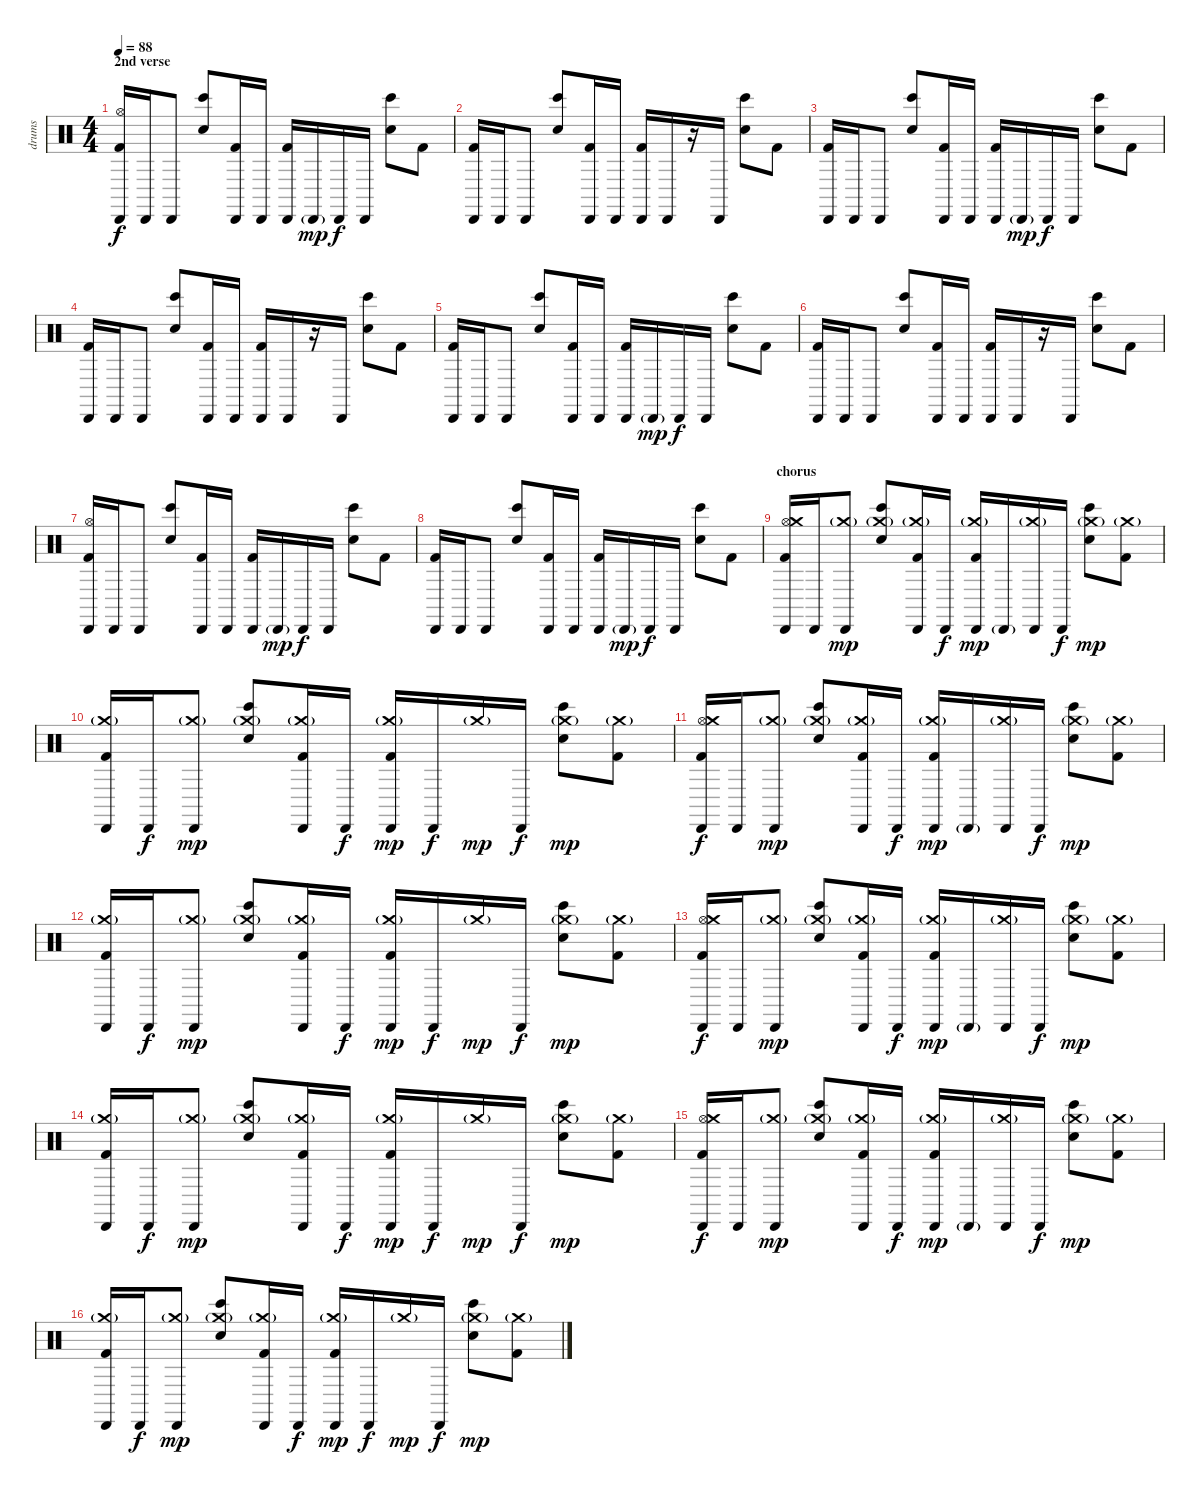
\track ("drums" "drums") {instrument percussion}
\staff {score}
\articulation defaults
\ts (4 4)
\section ("" "2nd verse")
\tempo 88
\clef neutral
\ks c
("Cabasa (hit)" "Kick (hit) 2" "Hi-Hat (open)").16{dy f} "Cabasa (hit)".16 "Cabasa (hit)".8 ("Hand Clap (hit)" "Bongo High (hit)").8 ("Cabasa (hit)" "Kick (hit) 2").16 "Cabasa (hit)".16 ("Cabasa (hit)" "Kick (hit) 2").16 "Cabasa (hit)"{g}.16{dy mp} "Cabasa (hit)".16{dy f} "Cabasa (hit)".16 ("Hand Clap (hit)" "Bongo High (hit)").8 "Kick (hit) 2".8 |
("Cabasa (hit)" "Kick (hit) 2").16 "Cabasa (hit)".16 "Cabasa (hit)".8 ("Bongo High (hit)" "Hand Clap (hit)").8 ("Cabasa (hit)" "Kick (hit) 2").16 "Cabasa (hit)".16 ("Cabasa (hit)" "Kick (hit) 2").16 "Cabasa (hit)".16 r.16 "Cabasa (hit)".16 ("Bongo High (hit)" "Hand Clap (hit)").8 "Kick (hit) 2".8 |
("Cabasa (hit)" "Kick (hit) 2").16 "Cabasa (hit)".16 "Cabasa (hit)".8 ("Hand Clap (hit)" "Bongo High (hit)").8 ("Cabasa (hit)" "Kick (hit) 2").16 "Cabasa (hit)".16 ("Cabasa (hit)" "Kick (hit) 2").16 "Cabasa (hit)"{g}.16{dy mp} "Cabasa (hit)".16{dy f} "Cabasa (hit)".16 ("Hand Clap (hit)" "Bongo High (hit)").8 "Kick (hit) 2".8 |
("Cabasa (hit)" "Kick (hit) 2").16 "Cabasa (hit)".16 "Cabasa (hit)".8 ("Bongo High (hit)" "Hand Clap (hit)").8 ("Cabasa (hit)" "Kick (hit) 2").16 "Cabasa (hit)".16 ("Cabasa (hit)" "Kick (hit) 2").16 "Cabasa (hit)".16 r.16 "Cabasa (hit)".16 ("Bongo High (hit)" "Hand Clap (hit)").8 "Kick (hit) 2".8 |
("Cabasa (hit)" "Kick (hit) 2").16 "Cabasa (hit)".16 "Cabasa (hit)".8 ("Hand Clap (hit)" "Bongo High (hit)").8 ("Cabasa (hit)" "Kick (hit) 2").16 "Cabasa (hit)".16 ("Cabasa (hit)" "Kick (hit) 2").16 "Cabasa (hit)"{g}.16{dy mp} "Cabasa (hit)".16{dy f} "Cabasa (hit)".16 ("Hand Clap (hit)" "Bongo High (hit)").8 "Kick (hit) 2".8 |
("Cabasa (hit)" "Kick (hit) 2").16 "Cabasa (hit)".16 "Cabasa (hit)".8 ("Bongo High (hit)" "Hand Clap (hit)").8 ("Cabasa (hit)" "Kick (hit) 2").16 "Cabasa (hit)".16 ("Cabasa (hit)" "Kick (hit) 2").16 "Cabasa (hit)".16 r.16 "Cabasa (hit)".16 ("Bongo High (hit)" "Hand Clap (hit)").8 "Kick (hit) 2".8 |
("Cabasa (hit)" "Kick (hit) 2" "Hi-Hat (open)").16 "Cabasa (hit)".16 "Cabasa (hit)".8 ("Hand Clap (hit)" "Bongo High (hit)").8 ("Cabasa (hit)" "Kick (hit) 2").16 "Cabasa (hit)".16 ("Cabasa (hit)" "Kick (hit) 2").16 "Cabasa (hit)"{g}.16{dy mp} "Cabasa (hit)".16{dy f} "Cabasa (hit)".16 ("Hand Clap (hit)" "Bongo High (hit)").8 "Kick (hit) 2".8 |
("Cabasa (hit)" "Kick (hit) 2").16 "Cabasa (hit)".16 "Cabasa (hit)".8 ("Hand Clap (hit)" "Bongo High (hit)").8 ("Cabasa (hit)" "Kick (hit) 2").16 "Cabasa (hit)".16 ("Cabasa (hit)" "Kick (hit) 2").16 "Cabasa (hit)"{g}.16{dy mp} "Cabasa (hit)".16{dy f} "Cabasa (hit)".16 ("Hand Clap (hit)" "Bongo High (hit)").8 "Kick (hit) 2".8 |
\section ("" "chorus")
("Cabasa (hit)" "Kick (hit) 2" "Hi-Hat (open)" "Crash medium (hit)").16 "Cabasa (hit)".16 ("Cabasa (hit)" "Crash medium (hit)"{g}).8{dy mp} ("Hand Clap (hit)" "Bongo High (hit)" "Crash medium (hit)"{g}).8 ("Cabasa (hit)" "Kick (hit) 2" "Crash medium (hit)"{g}).16 "Cabasa (hit)".16{dy f} ("Cabasa (hit)" "Kick (hit) 2" "Crash medium (hit)"{g}).16{dy mp} "Cabasa (hit)"{g}.16 ("Cabasa (hit)" "Crash medium (hit)"{g}).16 "Cabasa (hit)".16{dy f} ("Hand Clap (hit)" "Bongo High (hit)" "Crash medium (hit)"{g}).8{dy mp} ("Kick (hit) 2" "Crash medium (hit)"{g}).8 |
("Cabasa (hit)" "Kick (hit) 2" "Crash medium (hit)"{g}).16 "Cabasa (hit)".16{dy f} ("Cabasa (hit)" "Crash medium (hit)"{g}).8{dy mp} ("Bongo High (hit)" "Hand Clap (hit)" "Crash medium (hit)"{g}).8 ("Cabasa (hit)" "Kick (hit) 2" "Crash medium (hit)"{g}).16 "Cabasa (hit)".16{dy f} ("Cabasa (hit)" "Kick (hit) 2" "Crash medium (hit)"{g}).16{dy mp} "Cabasa (hit)".16{dy f} "Crash medium (hit)"{g}.16{dy mp} "Cabasa (hit)".16{dy f} ("Bongo High (hit)" "Hand Clap (hit)" "Crash medium (hit)"{g}).8{dy mp} ("Kick (hit) 2" "Crash medium (hit)"{g}).8 |
("Cabasa (hit)" "Kick (hit) 2" "Hi-Hat (open)" "Crash medium (hit)").16{dy f} "Cabasa (hit)".16 ("Cabasa (hit)" "Crash medium (hit)"{g}).8{dy mp} ("Hand Clap (hit)" "Bongo High (hit)" "Crash medium (hit)"{g}).8 ("Cabasa (hit)" "Kick (hit) 2" "Crash medium (hit)"{g}).16 "Cabasa (hit)".16{dy f} ("Cabasa (hit)" "Kick (hit) 2" "Crash medium (hit)"{g}).16{dy mp} "Cabasa (hit)"{g}.16 ("Cabasa (hit)" "Crash medium (hit)"{g}).16 "Cabasa (hit)".16{dy f} ("Hand Clap (hit)" "Bongo High (hit)" "Crash medium (hit)"{g}).8{dy mp} ("Kick (hit) 2" "Crash medium (hit)"{g}).8 |
("Cabasa (hit)" "Kick (hit) 2" "Crash medium (hit)"{g}).16 "Cabasa (hit)".16{dy f} ("Cabasa (hit)" "Crash medium (hit)"{g}).8{dy mp} ("Bongo High (hit)" "Hand Clap (hit)" "Crash medium (hit)"{g}).8 ("Cabasa (hit)" "Kick (hit) 2" "Crash medium (hit)"{g}).16 "Cabasa (hit)".16{dy f} ("Cabasa (hit)" "Kick (hit) 2" "Crash medium (hit)"{g}).16{dy mp} "Cabasa (hit)".16{dy f} "Crash medium (hit)"{g}.16{dy mp} "Cabasa (hit)".16{dy f} ("Bongo High (hit)" "Hand Clap (hit)" "Crash medium (hit)"{g}).8{dy mp} ("Kick (hit) 2" "Crash medium (hit)"{g}).8 |
("Cabasa (hit)" "Kick (hit) 2" "Hi-Hat (open)" "Crash medium (hit)").16{dy f} "Cabasa (hit)".16 ("Cabasa (hit)" "Crash medium (hit)"{g}).8{dy mp} ("Hand Clap (hit)" "Bongo High (hit)" "Crash medium (hit)"{g}).8 ("Cabasa (hit)" "Kick (hit) 2" "Crash medium (hit)"{g}).16 "Cabasa (hit)".16{dy f} ("Cabasa (hit)" "Kick (hit) 2" "Crash medium (hit)"{g}).16{dy mp} "Cabasa (hit)"{g}.16 ("Cabasa (hit)" "Crash medium (hit)"{g}).16 "Cabasa (hit)".16{dy f} ("Hand Clap (hit)" "Bongo High (hit)" "Crash medium (hit)"{g}).8{dy mp} ("Kick (hit) 2" "Crash medium (hit)"{g}).8 |
("Cabasa (hit)" "Kick (hit) 2" "Crash medium (hit)"{g}).16 "Cabasa (hit)".16{dy f} ("Cabasa (hit)" "Crash medium (hit)"{g}).8{dy mp} ("Bongo High (hit)" "Hand Clap (hit)" "Crash medium (hit)"{g}).8 ("Cabasa (hit)" "Kick (hit) 2" "Crash medium (hit)"{g}).16 "Cabasa (hit)".16{dy f} ("Cabasa (hit)" "Kick (hit) 2" "Crash medium (hit)"{g}).16{dy mp} "Cabasa (hit)".16{dy f} "Crash medium (hit)"{g}.16{dy mp} "Cabasa (hit)".16{dy f} ("Bongo High (hit)" "Hand Clap (hit)" "Crash medium (hit)"{g}).8{dy mp} ("Kick (hit) 2" "Crash medium (hit)"{g}).8 |
("Cabasa (hit)" "Kick (hit) 2" "Hi-Hat (open)" "Crash medium (hit)").16{dy f} "Cabasa (hit)".16 ("Cabasa (hit)" "Crash medium (hit)"{g}).8{dy mp} ("Hand Clap (hit)" "Bongo High (hit)" "Crash medium (hit)"{g}).8 ("Cabasa (hit)" "Kick (hit) 2" "Crash medium (hit)"{g}).16 "Cabasa (hit)".16{dy f} ("Cabasa (hit)" "Kick (hit) 2" "Crash medium (hit)"{g}).16{dy mp} "Cabasa (hit)"{g}.16 ("Cabasa (hit)" "Crash medium (hit)"{g}).16 "Cabasa (hit)".16{dy f} ("Hand Clap (hit)" "Bongo High (hit)" "Crash medium (hit)"{g}).8{dy mp} ("Kick (hit) 2" "Crash medium (hit)"{g}).8 |
("Cabasa (hit)" "Kick (hit) 2" "Crash medium (hit)"{g}).16 "Cabasa (hit)".16{dy f} ("Cabasa (hit)" "Crash medium (hit)"{g}).8{dy mp} ("Bongo High (hit)" "Hand Clap (hit)" "Crash medium (hit)"{g}).8 ("Cabasa (hit)" "Kick (hit) 2" "Crash medium (hit)"{g}).16 "Cabasa (hit)".16{dy f} ("Cabasa (hit)" "Kick (hit) 2" "Crash medium (hit)"{g}).16{dy mp} "Cabasa (hit)".16{dy f} "Crash medium (hit)"{g}.16{dy mp} "Cabasa (hit)".16{dy f} ("Bongo High (hit)" "Hand Clap (hit)" "Crash medium (hit)"{g}).8{dy mp} ("Kick (hit) 2" "Crash medium (hit)"{g}).8
